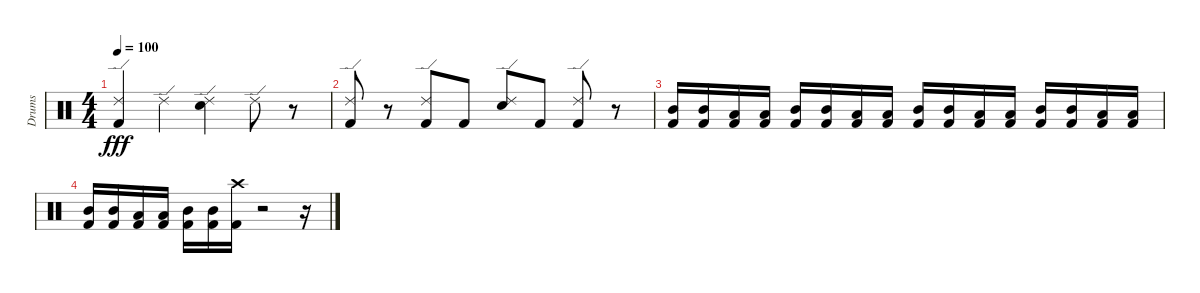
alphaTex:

\track ("Drums" "Drums") {instrument percussion}
\staff {score}
\articulation defaults
\ts (4 4)
\tempo 100
\clef neutral
\ks c
("Ride (edge) 2" "Kick (hit) 2").4{dy fff} "Ride (edge) 2".4 ("Ride (edge) 2" "Electric Snare (hit)").4 "Ride (edge) 2".8 r.8 |
("Ride (edge) 2" "Kick (hit) 2").8 r.8 ("Ride (edge) 2" "Kick (hit) 2").8 "Kick (hit) 2".8 ("Ride (edge) 2" "Electric Snare (hit)").8 "Kick (hit) 2".8 ("Kick (hit) 2" "Ride (edge) 2").8 r.8 |
("Kick (hit) 2" "Mid Tom (hit)").16 ("Kick (hit) 2" "Mid Tom (hit)").16 ("Kick (hit) 2" "Low Tom (hit)").16 ("Kick (hit) 2" "Low Tom (hit)").16 ("Kick (hit) 2" "Mid Tom (hit)").16 ("Kick (hit) 2" "Mid Tom (hit)").16 ("Kick (hit) 2" "Low Tom (hit)").16 ("Kick (hit) 2" "Low Tom (hit)").16 ("Kick (hit) 2" "Mid Tom (hit)").16 ("Kick (hit) 2" "Mid Tom (hit)").16 ("Kick (hit) 2" "Low Tom (hit)").16 ("Kick (hit) 2" "Low Tom (hit)").16 ("Kick (hit) 2" "Mid Tom (hit)").16 ("Kick (hit) 2" "Mid Tom (hit)").16 ("Kick (hit) 2" "Low Tom (hit)").16 ("Kick (hit) 2" "Low Tom (hit)").16 |
("Kick (hit) 2" "Mid Tom (hit)").16 ("Kick (hit) 2" "Mid Tom (hit)").16 ("Kick (hit) 2" "Low Tom (hit)").16 ("Kick (hit) 2" "Low Tom (hit)").16 ("Kick (hit) 2" "Mid Tom (hit)").16 ("Kick (hit) 2" "Mid Tom (hit)").16 ("Kick (hit) 2" "Crash high (hit)").16 r.2 r.16
